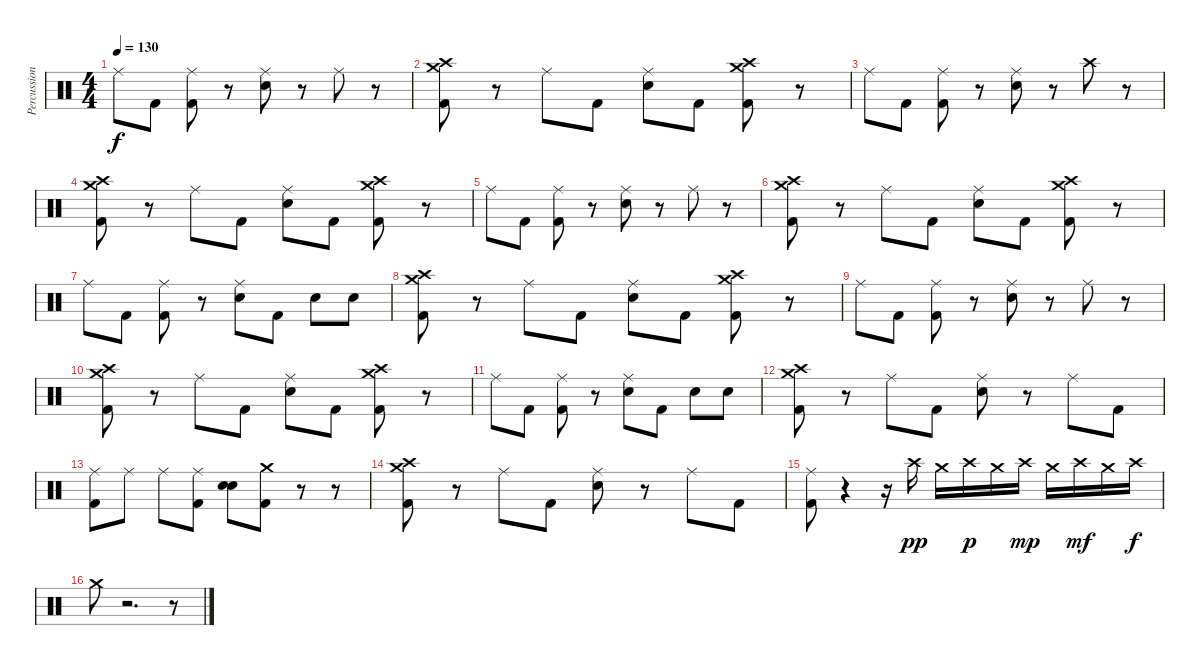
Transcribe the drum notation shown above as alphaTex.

\track ("Percussion" "Percussion") {instrument percussion}
\staff {score}
\articulation defaults
\ts (4 4)
\tempo 130
\clef neutral
\ks c "Ride (middle)".8{dy f} "Kick (hit) 2".8
("Ride (middle)" "Kick (hit) 2").8 r.8 ("Ride (middle)" "Snare (hit) 2").8 r.8 "Ride (middle)".8 r.8 |
("Crash medium (hit)" "Crash high (hit)" "Kick (hit) 2").8 r.8 "Ride (middle)".8 "Kick (hit) 2".8 ("Ride (middle)" "Snare (hit) 2").8 "Kick (hit) 2".8 ("Crash medium (hit)" "Crash high (hit)" "Kick (hit) 2").8 r.8 |
"Ride (middle)".8 "Kick (hit) 2".8 ("Ride (middle)" "Kick (hit) 2").8 r.8 ("Ride (middle)" "Snare (hit) 2").8 r.8 "Crash high (hit)".8 r.8 |
("Crash medium (hit)" "Crash high (hit)" "Kick (hit) 2").8 r.8 "Ride (middle)".8 "Kick (hit) 2".8 ("Ride (middle)" "Snare (hit) 2").8 "Kick (hit) 2".8 ("Crash medium (hit)" "Crash high (hit)" "Kick (hit) 2").8 r.8 |
"Ride (middle)".8 "Kick (hit) 2".8 ("Ride (middle)" "Kick (hit) 2").8 r.8 ("Ride (middle)" "Snare (hit) 2").8 r.8 "Ride (middle)".8 r.8 |
("Crash medium (hit)" "Crash high (hit)" "Kick (hit) 2").8 r.8 "Ride (middle)".8 "Kick (hit) 2".8 ("Ride (middle)" "Snare (hit) 2").8 "Kick (hit) 2".8 ("Crash medium (hit)" "Crash high (hit)" "Kick (hit) 2").8 r.8 |
"Ride (middle)".8 "Kick (hit) 2".8 ("Ride (middle)" "Kick (hit) 2").8 r.8 ("Ride (middle)" "Snare (hit) 2").8 "Kick (hit) 2".8 "Snare (hit) 2".8 "Snare (hit) 2".8 |
("Crash medium (hit)" "Crash high (hit)" "Kick (hit) 2").8 r.8 "Ride (middle)".8 "Kick (hit) 2".8 ("Ride (middle)" "Snare (hit) 2").8 "Kick (hit) 2".8 ("Crash medium (hit)" "Crash high (hit)" "Kick (hit) 2").8 r.8 |
"Ride (middle)".8 "Kick (hit) 2".8 ("Ride (middle)" "Kick (hit) 2").8 r.8 ("Ride (middle)" "Snare (hit) 2").8 r.8 "Ride (middle)".8 r.8 |
("Crash medium (hit)" "Crash high (hit)" "Kick (hit) 2").8 r.8 "Ride (middle)".8 "Kick (hit) 2".8 ("Ride (middle)" "Snare (hit) 2").8 "Kick (hit) 2".8 ("Crash medium (hit)" "Crash high (hit)" "Kick (hit) 2").8 r.8 |
"Ride (middle)".8 "Kick (hit) 2".8 ("Ride (middle)" "Kick (hit) 2").8 r.8 ("Ride (middle)" "Snare (hit) 2").8 "Kick (hit) 2".8 "Snare (hit) 2".8 "Snare (hit) 2".8 |
("Crash medium (hit)" "Crash high (hit)" "Kick (hit) 2").8 r.8 "Ride (middle)".8 "Kick (hit) 2".8 ("Ride (middle)" "Snare (hit) 2").8 r.8 "Ride (middle)".8 "Kick (hit) 2".8 |
("Ride (middle)" "Kick (hit) 2").8 "Ride (middle)".8 "Ride (middle)".8 ("Ride (middle)" "Kick (hit) 2").8 ("Snare (hit) 2" "Snare (hit) 2").8{bd 240} ("Crash medium (hit)" "Kick (hit) 2").8 r.8 r.8 |
("Crash medium (hit)" "Crash high (hit)" "Kick (hit) 2").8 r.8 "Ride (middle)".8 "Kick (hit) 2".8 ("Ride (middle)" "Snare (hit) 2").8 r.8 "Ride (middle)".8 "Kick (hit) 2".8 |
("Ride (middle)" "Kick (hit) 2").8 r.4 r.16 "Crash high (hit)".16{dy pp} "Crash medium (hit)".16 "Crash high (hit)".16{dy p} "Crash medium (hit)".16 "Crash high (hit)".16{dy mp} "Crash medium (hit)".16 "Crash high (hit)".16{dy mf} "Crash medium (hit)".16 "Crash high (hit)".16{dy f} |
"Crash medium (hit)".8 r.2{d} r.8
